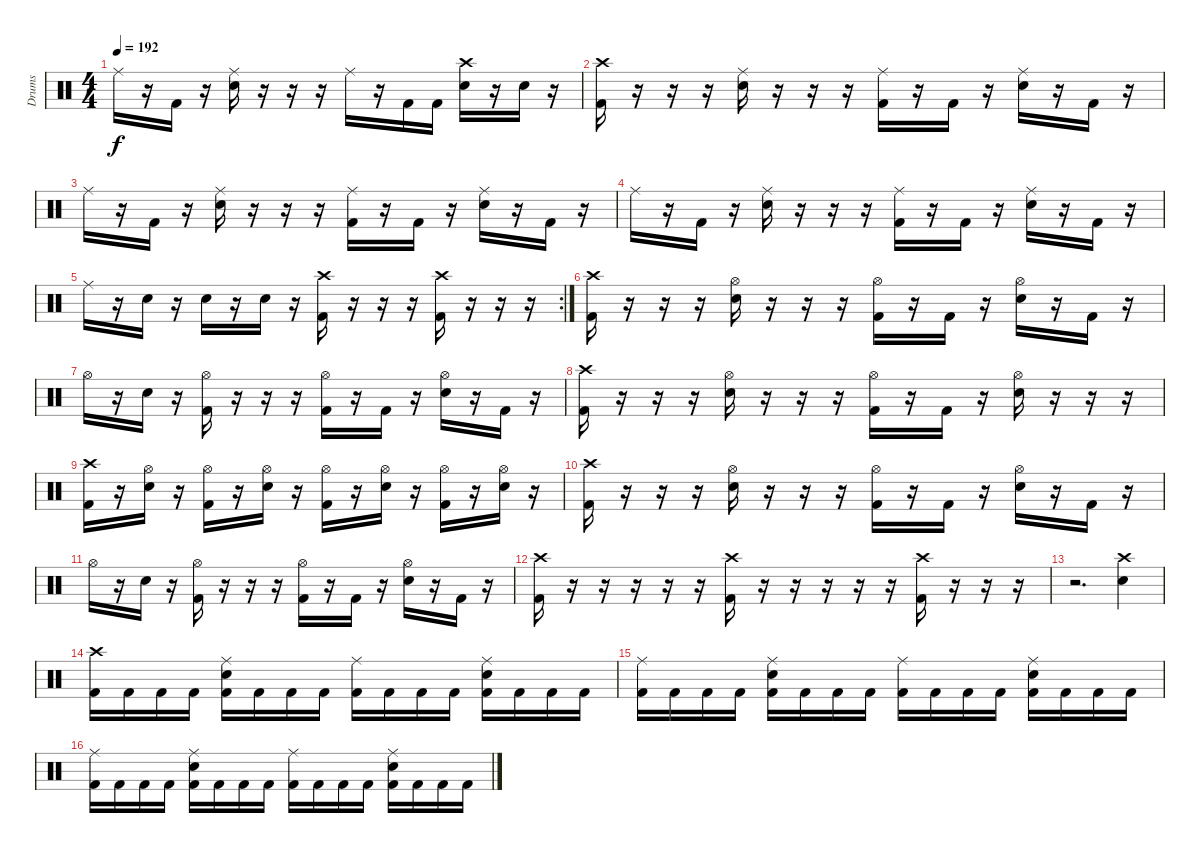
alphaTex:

\track ("Drums" "Drums") {instrument percussion}
\staff {score}
\articulation defaults
\ts (4 4)
\tempo 192
\clef neutral
\ks c "Ride (middle)".16{dy f}
r.16 "Kick (hit) 2".16 r.16 ("Ride (middle)" "Electric Snare (hit)").16 r.16 r.16 r.16 "Ride (middle)".16 r.16 "Kick (hit) 2".16 "Kick (hit) 2".16 ("Crash high (hit)" "Electric Snare (hit)").16 r.16 "Electric Snare (hit)".16 r.16 |
("Crash high (hit)" "Kick (hit) 2").16 r.16 r.16 r.16 ("Ride (middle)" "Electric Snare (hit)").16 r.16 r.16 r.16 ("Ride (middle)" "Kick (hit) 2").16 r.16 "Kick (hit) 2".16 r.16 ("Ride (middle)" "Electric Snare (hit)").16 r.16 "Kick (hit) 2".16 r.16 |
"Ride (middle)".16 r.16 "Kick (hit) 2".16 r.16 ("Ride (middle)" "Electric Snare (hit)").16 r.16 r.16 r.16 ("Ride (middle)" "Kick (hit) 2").16 r.16 "Kick (hit) 2".16 r.16 ("Ride (middle)" "Electric Snare (hit)").16 r.16 "Kick (hit) 2".16 r.16 |
"Ride (middle)".16 r.16 "Kick (hit) 2".16 r.16 ("Ride (middle)" "Electric Snare (hit)").16 r.16 r.16 r.16 ("Ride (middle)" "Kick (hit) 2").16 r.16 "Kick (hit) 2".16 r.16 ("Ride (middle)" "Electric Snare (hit)").16 r.16 "Kick (hit) 2".16 r.16 |
\rc 2 "Ride (middle)".16
r.16 "Electric Snare (hit)".16 r.16 "Electric Snare (hit)".16 r.16 "Electric Snare (hit)".16 r.16 ("Crash high (hit)" "Kick (hit) 2").16 r.16 r.16 r.16 ("Crash high (hit)" "Kick (hit) 2").16 r.16 r.16 r.16 |
("Crash high (hit)" "Kick (hit) 2").16 r.16 r.16 r.16 ("Hi-Hat (open)" "Electric Snare (hit)").16 r.16 r.16 r.16 ("Hi-Hat (open)" "Kick (hit) 2").16 r.16 "Kick (hit) 2".16 r.16 ("Hi-Hat (open)" "Electric Snare (hit)").16 r.16 "Kick (hit) 2".16 r.16 |
"Hi-Hat (open)".16 r.16 "Electric Snare (hit)".16 r.16 ("Hi-Hat (open)" "Kick (hit) 2").16 r.16 r.16 r.16 ("Hi-Hat (open)" "Kick (hit) 2").16 r.16 "Kick (hit) 2".16 r.16 ("Hi-Hat (open)" "Electric Snare (hit)").16 r.16 "Kick (hit) 2".16 r.16 |
("Crash high (hit)" "Kick (hit) 2").16 r.16 r.16 r.16 ("Hi-Hat (open)" "Electric Snare (hit)").16 r.16 r.16 r.16 ("Hi-Hat (open)" "Kick (hit) 2").16 r.16 "Kick (hit) 2".16 r.16 ("Hi-Hat (open)" "Electric Snare (hit)").16 r.16 r.16 r.16 |
("Crash high (hit)" "Kick (hit) 2").16 r.16 ("Hi-Hat (open)" "Electric Snare (hit)").16 r.16 ("Hi-Hat (open)" "Kick (hit) 2").16 r.16 ("Hi-Hat (open)" "Electric Snare (hit)").16 r.16 ("Hi-Hat (open)" "Kick (hit) 2").16 r.16 ("Hi-Hat (open)" "Electric Snare (hit)").16 r.16 ("Hi-Hat (open)" "Kick (hit) 2").16 r.16 ("Hi-Hat (open)" "Electric Snare (hit)").16 r.16 |
("Crash high (hit)" "Kick (hit) 2").16 r.16 r.16 r.16 ("Hi-Hat (open)" "Electric Snare (hit)").16 r.16 r.16 r.16 ("Hi-Hat (open)" "Kick (hit) 2").16 r.16 "Kick (hit) 2".16 r.16 ("Hi-Hat (open)" "Electric Snare (hit)").16 r.16 "Kick (hit) 2".16 r.16 |
"Hi-Hat (open)".16 r.16 "Electric Snare (hit)".16 r.16 ("Hi-Hat (open)" "Kick (hit) 2").16 r.16 r.16 r.16 ("Hi-Hat (open)" "Kick (hit) 2").16 r.16 "Kick (hit) 2".16 r.16 ("Hi-Hat (open)" "Electric Snare (hit)").16 r.16 "Kick (hit) 2".16 r.16 |
("Crash high (hit)" "Kick (hit) 2").16 r.16 r.16 r.16 r.16 r.16 ("Crash high (hit)" "Kick (hit) 2").16 r.16 r.16 r.16 r.16 r.16 ("Crash high (hit)" "Kick (hit) 2").16 r.16 r.16 r.16 |
r.2{d} ("Crash high (hit)" "Electric Snare (hit)").4 |
("Crash high (hit)" "Kick (hit) 2").16 "Kick (hit) 2".16 "Kick (hit) 2".16 "Kick (hit) 2".16 ("Ride (middle)" "Electric Snare (hit)" "Kick (hit) 2").16 "Kick (hit) 2".16 "Kick (hit) 2".16 "Kick (hit) 2".16 ("Ride (middle)" "Kick (hit) 2").16 "Kick (hit) 2".16 "Kick (hit) 2".16 "Kick (hit) 2".16 ("Ride (middle)" "Electric Snare (hit)" "Kick (hit) 2").16 "Kick (hit) 2".16 "Kick (hit) 2".16 "Kick (hit) 2".16 |
("Ride (middle)" "Kick (hit) 2").16 "Kick (hit) 2".16 "Kick (hit) 2".16 "Kick (hit) 2".16 ("Ride (middle)" "Electric Snare (hit)" "Kick (hit) 2").16 "Kick (hit) 2".16 "Kick (hit) 2".16 "Kick (hit) 2".16 ("Ride (middle)" "Kick (hit) 2").16 "Kick (hit) 2".16 "Kick (hit) 2".16 "Kick (hit) 2".16 ("Ride (middle)" "Electric Snare (hit)" "Kick (hit) 2").16 "Kick (hit) 2".16 "Kick (hit) 2".16 "Kick (hit) 2".16 |
("Ride (middle)" "Kick (hit) 2").16 "Kick (hit) 2".16 "Kick (hit) 2".16 "Kick (hit) 2".16 ("Ride (middle)" "Electric Snare (hit)" "Kick (hit) 2").16 "Kick (hit) 2".16 "Kick (hit) 2".16 "Kick (hit) 2".16 ("Ride (middle)" "Kick (hit) 2").16 "Kick (hit) 2".16 "Kick (hit) 2".16 "Kick (hit) 2".16 ("Ride (middle)" "Electric Snare (hit)" "Kick (hit) 2").16 "Kick (hit) 2".16 "Kick (hit) 2".16 "Kick (hit) 2".16
